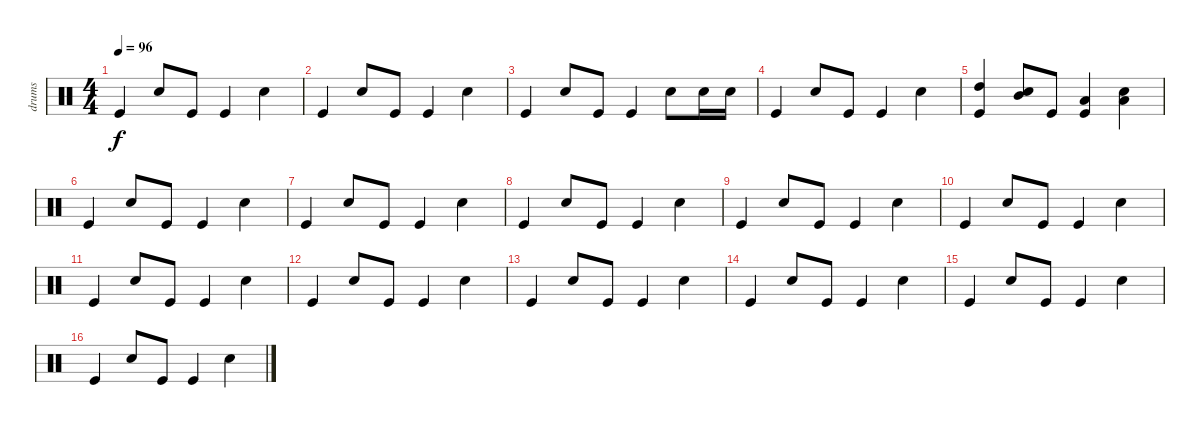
\track ("drums" "drums") {instrument percussion}
\staff {score}
\articulation defaults
\ts (4 4)
\tempo 96
\clef neutral
\ks c "Kick (hit)".4{dy f} "Snare (hit) 2".8 "Kick (hit)".8 "Kick (hit)".4 "Snare (hit) 2".4
|
"Kick (hit)".4 "Snare (hit) 2".8 "Kick (hit)".8 "Kick (hit)".4 "Snare (hit) 2".4 |
"Kick (hit)".4 "Snare (hit) 2".8 "Kick (hit)".8 "Kick (hit)".4 "Snare (hit) 2".8 "Snare (hit) 2".16 "Snare (hit) 2".16 |
"Kick (hit)".4 "Snare (hit) 2".8 "Kick (hit)".8 "Kick (hit)".4 "Snare (hit) 2".4 |
("High Tom (hit)" "Kick (hit)").4 ("Mid Tom (hit)" "Snare (hit) 2").8 "Kick (hit)".8 ("Low Tom (hit)" "Kick (hit)").4 ("Low Floor Tom (hit)" "Snare (hit) 2").4 |
"Kick (hit)".4 "Snare (hit) 2".8 "Kick (hit)".8 "Kick (hit)".4 "Snare (hit) 2".4 |
"Kick (hit)".4 "Snare (hit) 2".8 "Kick (hit)".8 "Kick (hit)".4 "Snare (hit) 2".4 |
"Kick (hit)".4 "Snare (hit) 2".8 "Kick (hit)".8 "Kick (hit)".4 "Snare (hit) 2".4 |
"Kick (hit)".4 "Snare (hit) 2".8 "Kick (hit)".8 "Kick (hit)".4 "Snare (hit) 2".4 |
"Kick (hit)".4 "Snare (hit) 2".8 "Kick (hit)".8 "Kick (hit)".4 "Snare (hit) 2".4 |
"Kick (hit)".4 "Snare (hit) 2".8 "Kick (hit)".8 "Kick (hit)".4 "Snare (hit) 2".4 |
"Kick (hit)".4 "Snare (hit) 2".8 "Kick (hit)".8 "Kick (hit)".4 "Snare (hit) 2".4 |
"Kick (hit)".4 "Snare (hit) 2".8 "Kick (hit)".8 "Kick (hit)".4 "Snare (hit) 2".4 |
"Kick (hit)".4 "Snare (hit) 2".8 "Kick (hit)".8 "Kick (hit)".4 "Snare (hit) 2".4 |
"Kick (hit)".4 "Snare (hit) 2".8 "Kick (hit)".8 "Kick (hit)".4 "Snare (hit) 2".4 |
"Kick (hit)".4 "Snare (hit) 2".8 "Kick (hit)".8 "Kick (hit)".4 "Snare (hit) 2".4
